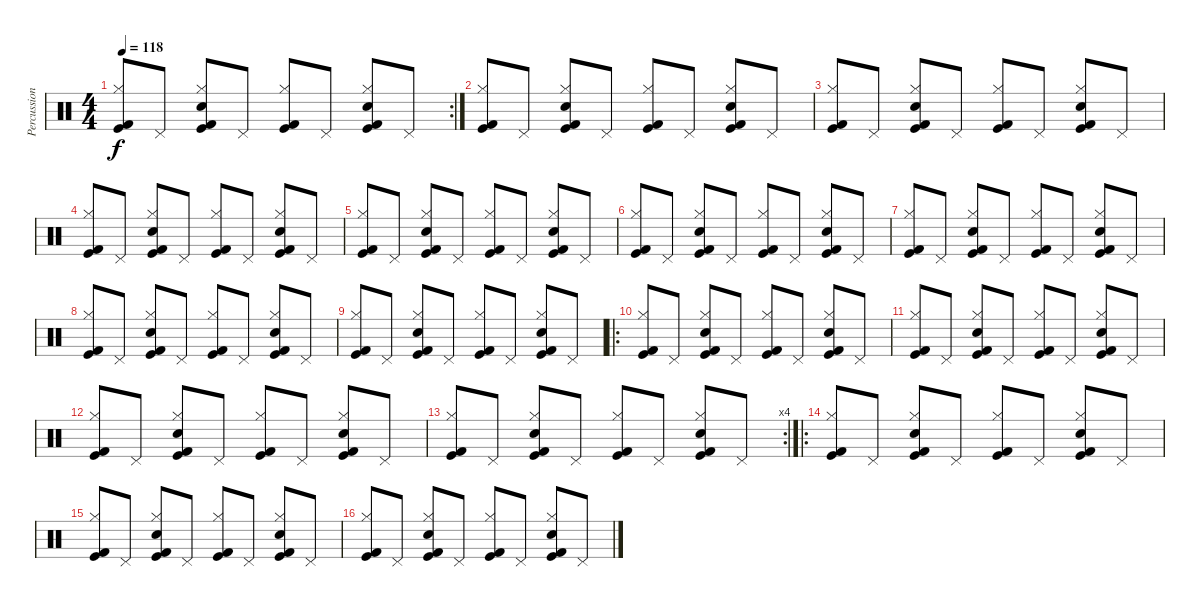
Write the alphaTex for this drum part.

\track ("Percussion" "Percussion") {instrument percussion}
\staff {score}
\articulation defaults
\rc 2
\ts (4 4)
\tempo 118
\clef neutral
\ks c
("Kick (hit)" "Hi-Hat (closed)" "Kick (hit) 2").8{dy f} "Pedal Hi-Hat (hit)".8 ("Snare (hit) 2" "Kick (hit)" "Hi-Hat (closed)" "Kick (hit) 2").8 "Pedal Hi-Hat (hit)".8 ("Kick (hit)" "Hi-Hat (closed)" "Kick (hit) 2").8 "Pedal Hi-Hat (hit)".8 ("Snare (hit) 2" "Kick (hit)" "Hi-Hat (closed)" "Kick (hit) 2").8 "Pedal Hi-Hat (hit)".8 |
("Kick (hit)" "Hi-Hat (closed)" "Kick (hit) 2").8 "Pedal Hi-Hat (hit)".8 ("Snare (hit) 2" "Kick (hit)" "Hi-Hat (closed)" "Kick (hit) 2").8 "Pedal Hi-Hat (hit)".8 ("Kick (hit)" "Hi-Hat (closed)" "Kick (hit) 2").8 "Pedal Hi-Hat (hit)".8 ("Snare (hit) 2" "Kick (hit)" "Hi-Hat (closed)" "Kick (hit) 2").8 "Pedal Hi-Hat (hit)".8 |
("Kick (hit)" "Hi-Hat (closed)" "Kick (hit) 2").8 "Pedal Hi-Hat (hit)".8 ("Snare (hit) 2" "Kick (hit)" "Hi-Hat (closed)" "Kick (hit) 2").8 "Pedal Hi-Hat (hit)".8 ("Kick (hit)" "Hi-Hat (closed)" "Kick (hit) 2").8 "Pedal Hi-Hat (hit)".8 ("Snare (hit) 2" "Kick (hit)" "Hi-Hat (closed)" "Kick (hit) 2").8 "Pedal Hi-Hat (hit)".8 |
("Kick (hit)" "Hi-Hat (closed)" "Kick (hit) 2").8 "Pedal Hi-Hat (hit)".8 ("Snare (hit) 2" "Kick (hit)" "Hi-Hat (closed)" "Kick (hit) 2").8 "Pedal Hi-Hat (hit)".8 ("Kick (hit)" "Hi-Hat (closed)" "Kick (hit) 2").8 "Pedal Hi-Hat (hit)".8 ("Snare (hit) 2" "Kick (hit)" "Hi-Hat (closed)" "Kick (hit) 2").8 "Pedal Hi-Hat (hit)".8 |
("Kick (hit)" "Hi-Hat (closed)" "Kick (hit) 2").8 "Pedal Hi-Hat (hit)".8 ("Snare (hit) 2" "Kick (hit)" "Hi-Hat (closed)" "Kick (hit) 2").8 "Pedal Hi-Hat (hit)".8 ("Kick (hit)" "Hi-Hat (closed)" "Kick (hit) 2").8 "Pedal Hi-Hat (hit)".8 ("Snare (hit) 2" "Kick (hit)" "Hi-Hat (closed)" "Kick (hit) 2").8 "Pedal Hi-Hat (hit)".8 |
("Kick (hit)" "Hi-Hat (closed)" "Kick (hit) 2").8 "Pedal Hi-Hat (hit)".8 ("Snare (hit) 2" "Kick (hit)" "Hi-Hat (closed)" "Kick (hit) 2").8 "Pedal Hi-Hat (hit)".8 ("Kick (hit)" "Hi-Hat (closed)" "Kick (hit) 2").8 "Pedal Hi-Hat (hit)".8 ("Snare (hit) 2" "Kick (hit)" "Hi-Hat (closed)" "Kick (hit) 2").8 "Pedal Hi-Hat (hit)".8 |
("Kick (hit)" "Hi-Hat (closed)" "Kick (hit) 2").8 "Pedal Hi-Hat (hit)".8 ("Snare (hit) 2" "Kick (hit)" "Hi-Hat (closed)" "Kick (hit) 2").8 "Pedal Hi-Hat (hit)".8 ("Kick (hit)" "Hi-Hat (closed)" "Kick (hit) 2").8 "Pedal Hi-Hat (hit)".8 ("Snare (hit) 2" "Kick (hit)" "Hi-Hat (closed)" "Kick (hit) 2").8 "Pedal Hi-Hat (hit)".8 |
("Kick (hit)" "Hi-Hat (closed)" "Kick (hit) 2").8 "Pedal Hi-Hat (hit)".8 ("Snare (hit) 2" "Kick (hit)" "Hi-Hat (closed)" "Kick (hit) 2").8 "Pedal Hi-Hat (hit)".8 ("Kick (hit)" "Hi-Hat (closed)" "Kick (hit) 2").8 "Pedal Hi-Hat (hit)".8 ("Snare (hit) 2" "Kick (hit)" "Hi-Hat (closed)" "Kick (hit) 2").8 "Pedal Hi-Hat (hit)".8 |
("Kick (hit)" "Hi-Hat (closed)" "Kick (hit) 2").8 "Pedal Hi-Hat (hit)".8 ("Snare (hit) 2" "Kick (hit)" "Hi-Hat (closed)" "Kick (hit) 2").8 "Pedal Hi-Hat (hit)".8 ("Kick (hit)" "Hi-Hat (closed)" "Kick (hit) 2").8 "Pedal Hi-Hat (hit)".8 ("Snare (hit) 2" "Kick (hit)" "Hi-Hat (closed)" "Kick (hit) 2").8 "Pedal Hi-Hat (hit)".8 |
\ro
("Kick (hit)" "Hi-Hat (closed)" "Kick (hit) 2").8 "Pedal Hi-Hat (hit)".8 ("Snare (hit) 2" "Kick (hit)" "Hi-Hat (closed)" "Kick (hit) 2").8 "Pedal Hi-Hat (hit)".8 ("Kick (hit)" "Hi-Hat (closed)" "Kick (hit) 2").8 "Pedal Hi-Hat (hit)".8 ("Snare (hit) 2" "Kick (hit)" "Hi-Hat (closed)" "Kick (hit) 2").8 "Pedal Hi-Hat (hit)".8 |
("Kick (hit)" "Hi-Hat (closed)" "Kick (hit) 2").8 "Pedal Hi-Hat (hit)".8 ("Snare (hit) 2" "Kick (hit)" "Hi-Hat (closed)" "Kick (hit) 2").8 "Pedal Hi-Hat (hit)".8 ("Kick (hit)" "Hi-Hat (closed)" "Kick (hit) 2").8 "Pedal Hi-Hat (hit)".8 ("Snare (hit) 2" "Kick (hit)" "Hi-Hat (closed)" "Kick (hit) 2").8 "Pedal Hi-Hat (hit)".8 |
("Kick (hit)" "Hi-Hat (closed)" "Kick (hit) 2").8 "Pedal Hi-Hat (hit)".8 ("Snare (hit) 2" "Kick (hit)" "Hi-Hat (closed)" "Kick (hit) 2").8 "Pedal Hi-Hat (hit)".8 ("Kick (hit)" "Hi-Hat (closed)" "Kick (hit) 2").8 "Pedal Hi-Hat (hit)".8 ("Snare (hit) 2" "Kick (hit)" "Hi-Hat (closed)" "Kick (hit) 2").8 "Pedal Hi-Hat (hit)".8 |
\rc 4
("Kick (hit)" "Hi-Hat (closed)" "Kick (hit) 2").8 "Pedal Hi-Hat (hit)".8 ("Snare (hit) 2" "Kick (hit)" "Hi-Hat (closed)" "Kick (hit) 2").8 "Pedal Hi-Hat (hit)".8 ("Kick (hit)" "Hi-Hat (closed)" "Kick (hit) 2").8 "Pedal Hi-Hat (hit)".8 ("Snare (hit) 2" "Kick (hit)" "Hi-Hat (closed)" "Kick (hit) 2").8 "Pedal Hi-Hat (hit)".8 |
\ro
("Kick (hit)" "Hi-Hat (closed)" "Kick (hit) 2").8 "Pedal Hi-Hat (hit)".8 ("Snare (hit) 2" "Kick (hit)" "Hi-Hat (closed)" "Kick (hit) 2").8 "Pedal Hi-Hat (hit)".8 ("Kick (hit)" "Hi-Hat (closed)" "Kick (hit) 2").8 "Pedal Hi-Hat (hit)".8 ("Snare (hit) 2" "Kick (hit)" "Hi-Hat (closed)" "Kick (hit) 2").8 "Pedal Hi-Hat (hit)".8 |
("Kick (hit)" "Hi-Hat (closed)" "Kick (hit) 2").8 "Pedal Hi-Hat (hit)".8 ("Snare (hit) 2" "Kick (hit)" "Hi-Hat (closed)" "Kick (hit) 2").8 "Pedal Hi-Hat (hit)".8 ("Kick (hit)" "Hi-Hat (closed)" "Kick (hit) 2").8 "Pedal Hi-Hat (hit)".8 ("Snare (hit) 2" "Kick (hit)" "Hi-Hat (closed)" "Kick (hit) 2").8 "Pedal Hi-Hat (hit)".8 |
("Kick (hit)" "Hi-Hat (closed)" "Kick (hit) 2").8 "Pedal Hi-Hat (hit)".8 ("Snare (hit) 2" "Kick (hit)" "Hi-Hat (closed)" "Kick (hit) 2").8 "Pedal Hi-Hat (hit)".8 ("Kick (hit)" "Hi-Hat (closed)" "Kick (hit) 2").8 "Pedal Hi-Hat (hit)".8 ("Snare (hit) 2" "Kick (hit)" "Hi-Hat (closed)" "Kick (hit) 2").8 "Pedal Hi-Hat (hit)".8
